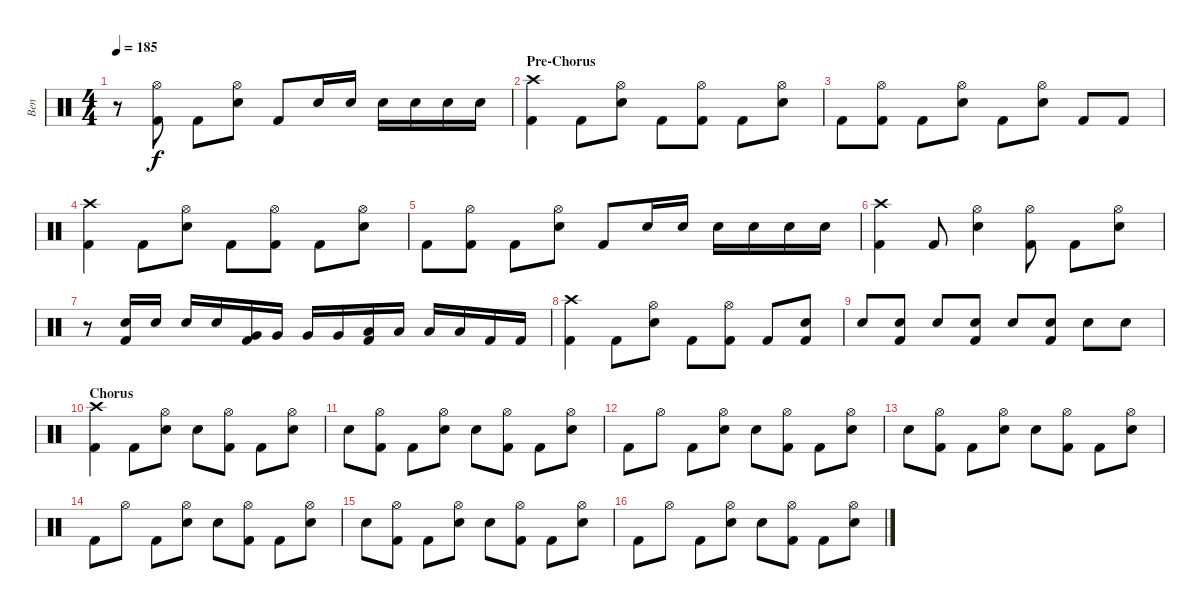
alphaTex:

\track ("Ben" "Ben") {instrument percussion}
\staff {score}
\articulation defaults
\ts (4 4)
\tempo 185
\clef neutral
\ks c
r.8{dy f} ("Hi-Hat (open)" "Kick (hit) 2").8 "Kick (hit) 2".8 ("Hi-Hat (open)" "Electric Snare (hit)").8 "Kick (hit) 2".8 "Electric Snare (hit)".16 "Electric Snare (hit)".16 "Electric Snare (hit)".16 "Electric Snare (hit)".16 "Electric Snare (hit)".16 "Electric Snare (hit)".16 |
\section ("" "Pre-Chorus")
("Crash high (hit)" "Kick (hit) 2").4 "Kick (hit) 2".8 ("Hi-Hat (open)" "Electric Snare (hit)").8 "Kick (hit) 2".8 ("Hi-Hat (open)" "Kick (hit) 2").8 "Kick (hit) 2".8 ("Hi-Hat (open)" "Electric Snare (hit)").8 |
"Kick (hit) 2".8 ("Hi-Hat (open)" "Kick (hit) 2").8 "Kick (hit) 2".8 ("Hi-Hat (open)" "Electric Snare (hit)").8 "Kick (hit) 2".8 ("Hi-Hat (open)" "Electric Snare (hit)").8 "Kick (hit) 2".8 "Kick (hit) 2".8 |
("Crash high (hit)" "Kick (hit) 2").4 "Kick (hit) 2".8 ("Hi-Hat (open)" "Electric Snare (hit)").8 "Kick (hit) 2".8 ("Hi-Hat (open)" "Kick (hit) 2").8 "Kick (hit) 2".8 ("Hi-Hat (open)" "Electric Snare (hit)").8 |
"Kick (hit) 2".8 ("Hi-Hat (open)" "Kick (hit) 2").8 "Kick (hit) 2".8 ("Hi-Hat (open)" "Electric Snare (hit)").8 "Kick (hit) 2".8 "Electric Snare (hit)".16 "Electric Snare (hit)".16 "Electric Snare (hit)".16 "Electric Snare (hit)".16 "Electric Snare (hit)".16 "Electric Snare (hit)".16 |
("Crash high (hit)" "Kick (hit) 2").4 "Kick (hit) 2".8 ("Hi-Hat (open)" "Electric Snare (hit)").4 ("Hi-Hat (open)" "Kick (hit) 2").8 "Kick (hit) 2".8 ("Hi-Hat (open)" "Electric Snare (hit)").8 |
r.8 ("Electric Snare (hit)" "Kick (hit) 2").16 "Electric Snare (hit)".16 "Electric Snare (hit)".16 "Electric Snare (hit)".16 ("Very Low Tom (hit)" "Kick (hit) 2").16 "Very Low Tom (hit)".16 "Very Low Tom (hit)".16 "Very Low Tom (hit)".16 ("Low Floor Tom (hit)" "Kick (hit) 2").16 "Low Floor Tom (hit)".16 "Low Floor Tom (hit)".16 "Low Floor Tom (hit)".16 "Kick (hit) 2".16 "Kick (hit) 2".16 |
("Crash high (hit)" "Kick (hit) 2").4 "Kick (hit) 2".8 ("Hi-Hat (open)" "Electric Snare (hit)").8 "Kick (hit) 2".8 ("Hi-Hat (open)" "Kick (hit) 2").8 "Kick (hit) 2".8 ("Electric Snare (hit)" "Kick (hit) 2").8 |
"Electric Snare (hit)".8 ("Electric Snare (hit)" "Kick (hit) 2").8 "Electric Snare (hit)".8 ("Electric Snare (hit)" "Kick (hit) 2").8 "Electric Snare (hit)".8 ("Electric Snare (hit)" "Kick (hit) 2").8 "Electric Snare (hit)".8 "Electric Snare (hit)".8 |
\section ("" "Chorus")
("Crash high (hit)" "Kick (hit) 2").4 "Kick (hit) 2".8 ("Hi-Hat (open)" "Electric Snare (hit)").8 "Electric Snare (hit)".8 ("Hi-Hat (open)" "Kick (hit) 2").8 "Kick (hit) 2".8 ("Hi-Hat (open)" "Electric Snare (hit)").8 |
"Electric Snare (hit)".8 ("Hi-Hat (open)" "Kick (hit) 2").8 "Kick (hit) 2".8 ("Hi-Hat (open)" "Electric Snare (hit)").8 "Electric Snare (hit)".8 ("Hi-Hat (open)" "Kick (hit) 2").8 "Kick (hit) 2".8 ("Hi-Hat (open)" "Electric Snare (hit)").8 |
"Kick (hit) 2".8 "Hi-Hat (open)".8 "Kick (hit) 2".8 ("Hi-Hat (open)" "Electric Snare (hit)").8 "Electric Snare (hit)".8 ("Hi-Hat (open)" "Kick (hit) 2").8 "Kick (hit) 2".8 ("Hi-Hat (open)" "Electric Snare (hit)").8 |
"Electric Snare (hit)".8 ("Hi-Hat (open)" "Kick (hit) 2").8 "Kick (hit) 2".8 ("Hi-Hat (open)" "Electric Snare (hit)").8 "Electric Snare (hit)".8 ("Hi-Hat (open)" "Kick (hit) 2").8 "Kick (hit) 2".8 ("Hi-Hat (open)" "Electric Snare (hit)").8 |
"Kick (hit) 2".8 "Hi-Hat (open)".8 "Kick (hit) 2".8 ("Hi-Hat (open)" "Electric Snare (hit)").8 "Electric Snare (hit)".8 ("Hi-Hat (open)" "Kick (hit) 2").8 "Kick (hit) 2".8 ("Hi-Hat (open)" "Electric Snare (hit)").8 |
"Electric Snare (hit)".8 ("Hi-Hat (open)" "Kick (hit) 2").8 "Kick (hit) 2".8 ("Hi-Hat (open)" "Electric Snare (hit)").8 "Electric Snare (hit)".8 ("Hi-Hat (open)" "Kick (hit) 2").8 "Kick (hit) 2".8 ("Hi-Hat (open)" "Electric Snare (hit)").8 |
"Kick (hit) 2".8 "Hi-Hat (open)".8 "Kick (hit) 2".8 ("Hi-Hat (open)" "Electric Snare (hit)").8 "Electric Snare (hit)".8 ("Hi-Hat (open)" "Kick (hit) 2").8 "Kick (hit) 2".8 ("Hi-Hat (open)" "Electric Snare (hit)").8
